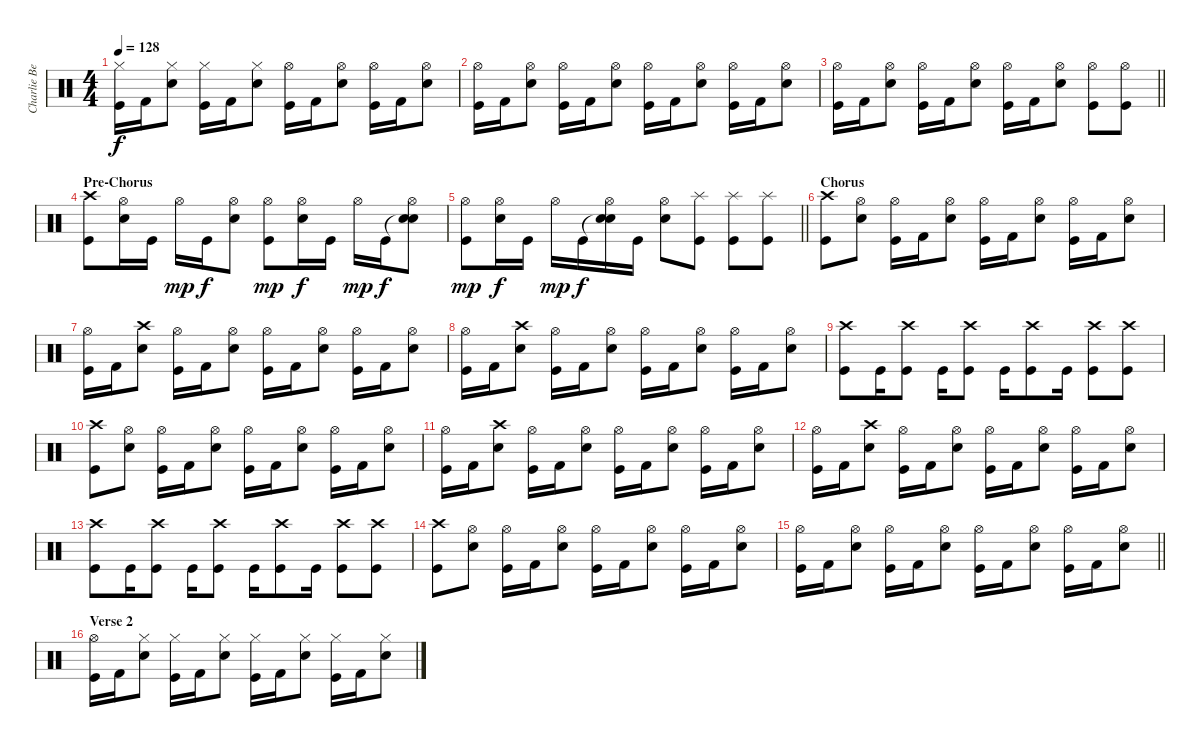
\track ("Charlie Benante (Drums)" "Charlie Be") {instrument percussion}
\staff {score}
\articulation defaults
\ts (4 4)
\tempo 128
\clef neutral
\ks c
("Hi-Hat (closed)" "Kick (hit)").16{dy f} "Kick (hit) 2".16 ("Hi-Hat (closed)" "Snare (hit) 2").8 ("Hi-Hat (closed)" "Kick (hit)").16 "Kick (hit) 2".16 ("Hi-Hat (closed)" "Snare (hit) 2").8 ("Hi-Hat (open)" "Kick (hit)").16 "Kick (hit) 2".16 ("Hi-Hat (open)" "Snare (hit) 2").8 ("Hi-Hat (open)" "Kick (hit)").16 "Kick (hit) 2".16 ("Hi-Hat (open)" "Snare (hit) 2").8 |
("Hi-Hat (open)" "Kick (hit)").16 "Kick (hit) 2".16 ("Hi-Hat (open)" "Snare (hit) 2").8 ("Hi-Hat (open)" "Kick (hit)").16 "Kick (hit) 2".16 ("Hi-Hat (open)" "Snare (hit) 2").8 ("Hi-Hat (open)" "Kick (hit)").16 "Kick (hit) 2".16 ("Hi-Hat (open)" "Snare (hit) 2").8 ("Hi-Hat (open)" "Kick (hit)").16 "Kick (hit) 2".16 ("Hi-Hat (open)" "Snare (hit) 2").8 |
\barLineRight lightlight
("Hi-Hat (open)" "Kick (hit)").16 "Kick (hit) 2".16 ("Hi-Hat (open)" "Snare (hit) 2").8 ("Hi-Hat (open)" "Kick (hit)").16 "Kick (hit) 2".16 ("Hi-Hat (open)" "Snare (hit) 2").8 ("Hi-Hat (open)" "Kick (hit)").16 "Kick (hit) 2".16 ("Hi-Hat (open)" "Snare (hit) 2").8 ("Hi-Hat (open)" "Kick (hit)").8 ("Hi-Hat (open)" "Kick (hit)").8 |
\section ("" "Pre-Chorus")
("Crash high (hit)" "Kick (hit)").8 ("Hi-Hat (open)" "Snare (hit) 2").16 "Kick (hit)".16 "Hi-Hat (open)".16{dy mp} "Kick (hit)".16{dy f} ("Hi-Hat (open)" "Snare (hit) 2").8 ("Hi-Hat (open)" "Kick (hit)").8{dy mp} ("Hi-Hat (open)" "Snare (hit) 2").16{dy f} "Kick (hit)".16 "Hi-Hat (open)".16{dy mp} "Kick (hit)".16{dy f} ("Snare (hit)"{t} "Hi-Hat (open)" "Snare (hit) 2").8 |
\barLineRight lightlight
("Hi-Hat (open)" "Kick (hit)").8{dy mp} ("Hi-Hat (open)" "Snare (hit) 2").16{dy f} "Kick (hit)".16 "Hi-Hat (open)".16{dy mp} "Kick (hit)".16{dy f} ("Snare (hit)"{t} "Hi-Hat (open)" "Snare (hit) 2").16 "Kick (hit)".16 ("Hi-Hat (open)" "Snare (hit) 2").8 ("Splash (hit)" "Kick (hit)").8 ("Splash (hit)" "Kick (hit)").8 ("Splash (hit)" "Kick (hit)").8 |
\section ("" "Chorus")
("Crash high (hit)" "Kick (hit)").8 ("Hi-Hat (open)" "Snare (hit) 2").8 ("Hi-Hat (open)" "Kick (hit)").16 "Kick (hit) 2".16 ("Hi-Hat (open)" "Snare (hit) 2").8 ("Hi-Hat (open)" "Kick (hit)").16 "Kick (hit) 2".16 ("Hi-Hat (open)" "Snare (hit) 2").8 ("Hi-Hat (open)" "Kick (hit)").16 "Kick (hit) 2".16 ("Hi-Hat (open)" "Snare (hit) 2").8 |
("Hi-Hat (open)" "Kick (hit)").16 "Kick (hit) 2".16 ("Crash high (hit)" "Snare (hit) 2").8 ("Hi-Hat (open)" "Kick (hit)").16 "Kick (hit) 2".16 ("Hi-Hat (open)" "Snare (hit) 2").8 ("Hi-Hat (open)" "Kick (hit)").16 "Kick (hit) 2".16 ("Hi-Hat (open)" "Snare (hit) 2").8 ("Hi-Hat (open)" "Kick (hit)").16 "Kick (hit) 2".16 ("Hi-Hat (open)" "Snare (hit) 2").8 |
("Hi-Hat (open)" "Kick (hit)").16 "Kick (hit) 2".16 ("Crash high (hit)" "Snare (hit) 2").8 ("Hi-Hat (open)" "Kick (hit)").16 "Kick (hit) 2".16 ("Hi-Hat (open)" "Snare (hit) 2").8 ("Hi-Hat (open)" "Kick (hit)").16 "Kick (hit) 2".16 ("Hi-Hat (open)" "Snare (hit) 2").8 ("Hi-Hat (open)" "Kick (hit)").16 "Kick (hit) 2".16 ("Hi-Hat (open)" "Snare (hit) 2").8 |
("Crash high (hit)" "Kick (hit)").8 "Kick (hit)".16 ("Crash high (hit)" "Kick (hit)").8 "Kick (hit)".16 ("Crash high (hit)" "Kick (hit)").8 "Kick (hit)".16 ("Crash high (hit)" "Kick (hit)").8 "Kick (hit)".16 ("Crash high (hit)" "Kick (hit)").8 ("Crash high (hit)" "Kick (hit)").8 |
("Crash high (hit)" "Kick (hit)").8 ("Hi-Hat (open)" "Snare (hit) 2").8 ("Hi-Hat (open)" "Kick (hit)").16 "Kick (hit) 2".16 ("Hi-Hat (open)" "Snare (hit) 2").8 ("Hi-Hat (open)" "Kick (hit)").16 "Kick (hit) 2".16 ("Hi-Hat (open)" "Snare (hit) 2").8 ("Hi-Hat (open)" "Kick (hit)").16 "Kick (hit) 2".16 ("Hi-Hat (open)" "Snare (hit) 2").8 |
("Hi-Hat (open)" "Kick (hit)").16 "Kick (hit) 2".16 ("Crash high (hit)" "Snare (hit) 2").8 ("Hi-Hat (open)" "Kick (hit)").16 "Kick (hit) 2".16 ("Hi-Hat (open)" "Snare (hit) 2").8 ("Hi-Hat (open)" "Kick (hit)").16 "Kick (hit) 2".16 ("Hi-Hat (open)" "Snare (hit) 2").8 ("Hi-Hat (open)" "Kick (hit)").16 "Kick (hit) 2".16 ("Hi-Hat (open)" "Snare (hit) 2").8 |
("Hi-Hat (open)" "Kick (hit)").16 "Kick (hit) 2".16 ("Crash high (hit)" "Snare (hit) 2").8 ("Hi-Hat (open)" "Kick (hit)").16 "Kick (hit) 2".16 ("Hi-Hat (open)" "Snare (hit) 2").8 ("Hi-Hat (open)" "Kick (hit)").16 "Kick (hit) 2".16 ("Hi-Hat (open)" "Snare (hit) 2").8 ("Hi-Hat (open)" "Kick (hit)").16 "Kick (hit) 2".16 ("Hi-Hat (open)" "Snare (hit) 2").8 |
("Crash high (hit)" "Kick (hit)").8 "Kick (hit)".16 ("Crash high (hit)" "Kick (hit)").8 "Kick (hit)".16 ("Crash high (hit)" "Kick (hit)").8 "Kick (hit)".16 ("Crash high (hit)" "Kick (hit)").8 "Kick (hit)".16 ("Crash high (hit)" "Kick (hit)").8 ("Crash high (hit)" "Kick (hit)").8 |
("Crash high (hit)" "Kick (hit)").8 ("Hi-Hat (open)" "Snare (hit) 2").8 ("Hi-Hat (open)" "Kick (hit)").16 "Kick (hit) 2".16 ("Hi-Hat (open)" "Snare (hit) 2").8 ("Hi-Hat (open)" "Kick (hit)").16 "Kick (hit) 2".16 ("Hi-Hat (open)" "Snare (hit) 2").8 ("Hi-Hat (open)" "Kick (hit)").16 "Kick (hit) 2".16 ("Hi-Hat (open)" "Snare (hit) 2").8 |
\barLineRight lightlight
("Hi-Hat (open)" "Kick (hit)").16 "Kick (hit) 2".16 ("Hi-Hat (open)" "Snare (hit) 2").8 ("Hi-Hat (open)" "Kick (hit)").16 "Kick (hit) 2".16 ("Hi-Hat (open)" "Snare (hit) 2").8 ("Hi-Hat (open)" "Kick (hit)").16 "Kick (hit) 2".16 ("Hi-Hat (open)" "Snare (hit) 2").8 ("Hi-Hat (open)" "Kick (hit)").16 "Kick (hit) 2".16 ("Hi-Hat (open)" "Snare (hit) 2").8 |
\section ("" "Verse 2")
("Hi-Hat (open)" "Kick (hit)").16 "Kick (hit) 2".16 ("Hi-Hat (closed)" "Snare (hit) 2").8 ("Hi-Hat (closed)" "Kick (hit)").16 "Kick (hit) 2".16 ("Hi-Hat (closed)" "Snare (hit) 2").8 ("Hi-Hat (closed)" "Kick (hit)").16 "Kick (hit) 2".16 ("Hi-Hat (closed)" "Snare (hit) 2").8 ("Hi-Hat (closed)" "Kick (hit)").16 "Kick (hit) 2".16 ("Hi-Hat (closed)" "Snare (hit) 2").8
